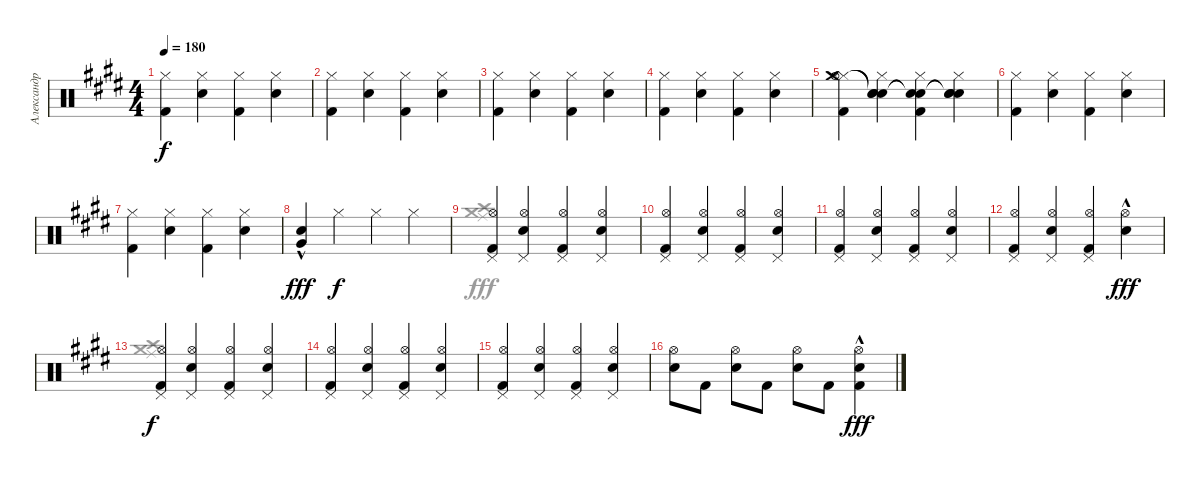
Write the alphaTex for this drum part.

\track ("Александр Новиков" "Александр ") {instrument percussion}
\staff {score}
\articulation defaults
\voice
\ts (4 4)
\tempo 180
\clef neutral
\ks c#minor
("Hi-Hat (closed)" "Kick (hit) 2").4{dy f} ("Hi-Hat (closed)" "Electric Snare (hit)").4 ("Hi-Hat (closed)" "Kick (hit) 2").4 ("Hi-Hat (closed)" "Electric Snare (hit)").4 |
("Hi-Hat (closed)" "Kick (hit) 2").4 ("Hi-Hat (closed)" "Electric Snare (hit)").4 ("Hi-Hat (closed)" "Kick (hit) 2").4 ("Hi-Hat (closed)" "Electric Snare (hit)").4 |
("Hi-Hat (closed)" "Kick (hit) 2").4 ("Hi-Hat (closed)" "Electric Snare (hit)").4 ("Hi-Hat (closed)" "Kick (hit) 2").4 ("Hi-Hat (closed)" "Electric Snare (hit)").4 |
("Hi-Hat (closed)" "Kick (hit) 2").4 ("Hi-Hat (closed)" "Electric Snare (hit)").4 ("Hi-Hat (closed)" "Kick (hit) 2").4 ("Hi-Hat (closed)" "Electric Snare (hit)").4 |
("Hi-Hat (closed)" "Kick (hit) 2" "Hi-Hat (open)" "Crash medium (hit)").4 ("Hi-Hat (closed)" "Electric Snare (hit)" "Snare (hit)"{t} "Snare (hit)"{t}).4 ("Hi-Hat (closed)" "Kick (hit) 2" "Snare (hit)"{t} "Snare (hit)"{t}).4 ("Hi-Hat (closed)" "Electric Snare (hit)" "Snare (hit)"{t} "Snare (hit)"{t}).4 |
("Hi-Hat (closed)" "Kick (hit) 2").4 ("Hi-Hat (closed)" "Electric Snare (hit)").4 ("Hi-Hat (closed)" "Kick (hit) 2").4 ("Hi-Hat (closed)" "Electric Snare (hit)").4 |
("Hi-Hat (closed)" "Kick (hit) 2").4 ("Hi-Hat (closed)" "Electric Snare (hit)").4 ("Hi-Hat (closed)" "Kick (hit) 2").4 ("Hi-Hat (closed)" "Electric Snare (hit)").4 |
("Very Low Tom (hit)"{hac} "Electric Snare (hit)"{hac}).4{dy fff} "Hi-Hat (closed)".4{dy f} "Hi-Hat (closed)".4 "Hi-Hat (closed)".4 |
("Hi-Hat (open)" "Kick (hit) 2" "Pedal Hi-Hat (hit)").4 ("Hi-Hat (open)" "Electric Snare (hit)" "Pedal Hi-Hat (hit)").4 ("Hi-Hat (open)" "Kick (hit) 2" "Pedal Hi-Hat (hit)").4 ("Hi-Hat (open)" "Electric Snare (hit)" "Pedal Hi-Hat (hit)").4 |
("Hi-Hat (open)" "Kick (hit) 2" "Pedal Hi-Hat (hit)").4 ("Hi-Hat (open)" "Electric Snare (hit)" "Pedal Hi-Hat (hit)").4 ("Hi-Hat (open)" "Kick (hit) 2" "Pedal Hi-Hat (hit)").4 ("Hi-Hat (open)" "Electric Snare (hit)" "Pedal Hi-Hat (hit)").4 |
("Hi-Hat (open)" "Kick (hit) 2" "Pedal Hi-Hat (hit)").4 ("Hi-Hat (open)" "Electric Snare (hit)" "Pedal Hi-Hat (hit)").4 ("Hi-Hat (open)" "Kick (hit) 2" "Pedal Hi-Hat (hit)").4 ("Hi-Hat (open)" "Electric Snare (hit)" "Pedal Hi-Hat (hit)").4 |
("Hi-Hat (open)" "Kick (hit) 2" "Pedal Hi-Hat (hit)").4 ("Hi-Hat (open)" "Electric Snare (hit)" "Pedal Hi-Hat (hit)").4 ("Hi-Hat (open)" "Kick (hit) 2" "Pedal Hi-Hat (hit)").4 ("Hi-Hat (open)"{hac} "Electric Snare (hit)").4{dy fff} |
("Hi-Hat (open)" "Kick (hit) 2" "Pedal Hi-Hat (hit)").4{dy f} ("Hi-Hat (open)" "Electric Snare (hit)" "Pedal Hi-Hat (hit)").4 ("Hi-Hat (open)" "Kick (hit) 2" "Pedal Hi-Hat (hit)").4 ("Hi-Hat (open)" "Electric Snare (hit)" "Pedal Hi-Hat (hit)").4 |
("Hi-Hat (open)" "Kick (hit) 2" "Pedal Hi-Hat (hit)").4 ("Hi-Hat (open)" "Electric Snare (hit)" "Pedal Hi-Hat (hit)").4 ("Hi-Hat (open)" "Kick (hit) 2" "Pedal Hi-Hat (hit)").4 ("Hi-Hat (open)" "Electric Snare (hit)" "Pedal Hi-Hat (hit)").4 |
("Hi-Hat (open)" "Kick (hit) 2" "Pedal Hi-Hat (hit)").4 ("Hi-Hat (open)" "Electric Snare (hit)" "Pedal Hi-Hat (hit)").4 ("Hi-Hat (open)" "Kick (hit) 2" "Pedal Hi-Hat (hit)").4 ("Hi-Hat (open)" "Electric Snare (hit)" "Pedal Hi-Hat (hit)").4 |
("Hi-Hat (open)" "Electric Snare (hit)").8 "Kick (hit) 2".8 ("Hi-Hat (open)" "Electric Snare (hit)").8 "Kick (hit) 2".8 ("Hi-Hat (open)" "Electric Snare (hit)").8 "Kick (hit) 2".8 ("Hi-Hat (open)"{hac} "Kick (hit) 2"{hac} "Electric Snare (hit)"{hac}).4{dy fff}
\voice
\clef neutral
\ottava regular
\simile none
\ks c#minor
|
|
|
|
|
|
|
|
("Crash high (hit)" "Crash medium (hit)" "Ride (middle)").1 |
|
|
|
("Crash high (hit)" "Crash medium (hit)" "Ride (middle)").1 |
|
|
